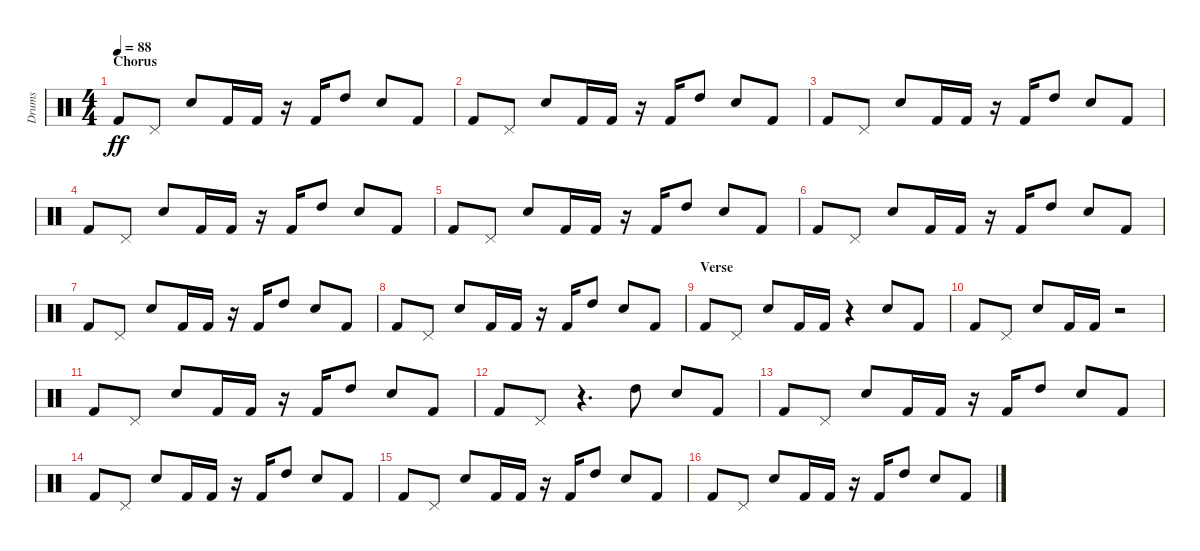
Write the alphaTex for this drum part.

\track ("Drums" "Drums") {solo instrument percussion}
\staff {score}
\articulation defaults
\ts (4 4)
\section ("" "Chorus")
\tempo 88
\clef neutral
\ks aminor "Kick (hit) 2".8{dy ff} "Pedal Hi-Hat (hit)".8 "Snare (hit) 2".8 "Kick (hit) 2".16 "Kick (hit) 2".16
r.16 "Kick (hit) 2".16 "High Tom (hit)".8 "Snare (hit) 2".8 "Kick (hit) 2".8 |
"Kick (hit) 2".8 "Pedal Hi-Hat (hit)".8 "Snare (hit) 2".8 "Kick (hit) 2".16 "Kick (hit) 2".16 r.16 "Kick (hit) 2".16 "High Tom (hit)".8 "Snare (hit) 2".8 "Kick (hit) 2".8 |
"Kick (hit) 2".8 "Pedal Hi-Hat (hit)".8 "Snare (hit) 2".8 "Kick (hit) 2".16 "Kick (hit) 2".16 r.16 "Kick (hit) 2".16 "High Tom (hit)".8 "Snare (hit) 2".8 "Kick (hit) 2".8 |
"Kick (hit) 2".8 "Pedal Hi-Hat (hit)".8 "Snare (hit) 2".8 "Kick (hit) 2".16 "Kick (hit) 2".16 r.16 "Kick (hit) 2".16 "High Tom (hit)".8 "Snare (hit) 2".8 "Kick (hit) 2".8 |
"Kick (hit) 2".8 "Pedal Hi-Hat (hit)".8 "Snare (hit) 2".8 "Kick (hit) 2".16 "Kick (hit) 2".16 r.16 "Kick (hit) 2".16 "High Tom (hit)".8 "Snare (hit) 2".8 "Kick (hit) 2".8 |
"Kick (hit) 2".8 "Pedal Hi-Hat (hit)".8 "Snare (hit) 2".8 "Kick (hit) 2".16 "Kick (hit) 2".16 r.16 "Kick (hit) 2".16 "High Tom (hit)".8 "Snare (hit) 2".8 "Kick (hit) 2".8 |
"Kick (hit) 2".8 "Pedal Hi-Hat (hit)".8 "Snare (hit) 2".8 "Kick (hit) 2".16 "Kick (hit) 2".16 r.16 "Kick (hit) 2".16 "High Tom (hit)".8 "Snare (hit) 2".8 "Kick (hit) 2".8 |
"Kick (hit) 2".8 "Pedal Hi-Hat (hit)".8 "Snare (hit) 2".8 "Kick (hit) 2".16 "Kick (hit) 2".16 r.16 "Kick (hit) 2".16 "High Tom (hit)".8 "Snare (hit) 2".8 "Kick (hit) 2".8 |
\section ("" "Verse")
"Kick (hit) 2".8 "Pedal Hi-Hat (hit)".8 "Snare (hit) 2".8 "Kick (hit) 2".16 "Kick (hit) 2".16 r.4 "Snare (hit) 2".8 "Kick (hit) 2".8 |
"Kick (hit) 2".8 "Pedal Hi-Hat (hit)".8 "Snare (hit) 2".8 "Kick (hit) 2".16 "Kick (hit) 2".16 r.2 |
"Kick (hit) 2".8 "Pedal Hi-Hat (hit)".8 "Snare (hit) 2".8 "Kick (hit) 2".16 "Kick (hit) 2".16 r.16 "Kick (hit) 2".16 "High Tom (hit)".8 "Snare (hit) 2".8 "Kick (hit) 2".8 |
"Kick (hit) 2".8 "Pedal Hi-Hat (hit)".8 r.4{d} "High Tom (hit)".8 "Snare (hit) 2".8 "Kick (hit) 2".8 |
"Kick (hit) 2".8 "Pedal Hi-Hat (hit)".8 "Snare (hit) 2".8 "Kick (hit) 2".16 "Kick (hit) 2".16 r.16 "Kick (hit) 2".16 "High Tom (hit)".8 "Snare (hit) 2".8 "Kick (hit) 2".8 |
"Kick (hit) 2".8 "Pedal Hi-Hat (hit)".8 "Snare (hit) 2".8 "Kick (hit) 2".16 "Kick (hit) 2".16 r.16 "Kick (hit) 2".16 "High Tom (hit)".8 "Snare (hit) 2".8 "Kick (hit) 2".8 |
"Kick (hit) 2".8 "Pedal Hi-Hat (hit)".8 "Snare (hit) 2".8 "Kick (hit) 2".16 "Kick (hit) 2".16 r.16 "Kick (hit) 2".16 "High Tom (hit)".8 "Snare (hit) 2".8 "Kick (hit) 2".8 |
"Kick (hit) 2".8 "Pedal Hi-Hat (hit)".8 "Snare (hit) 2".8 "Kick (hit) 2".16 "Kick (hit) 2".16 r.16 "Kick (hit) 2".16 "High Tom (hit)".8 "Snare (hit) 2".8 "Kick (hit) 2".8
